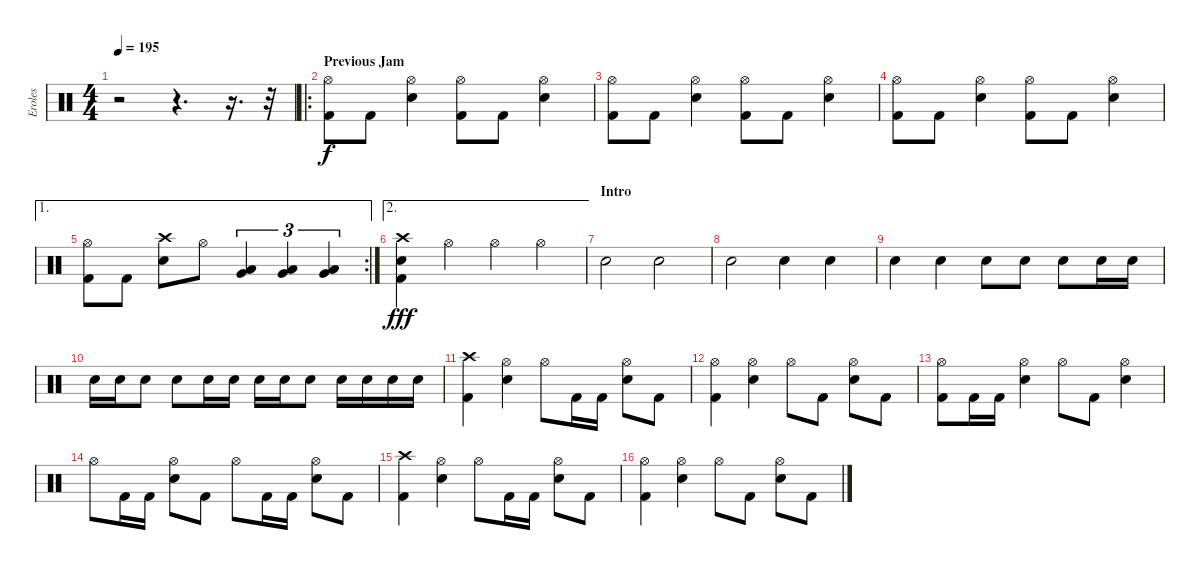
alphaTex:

\track ("Eroles" "Eroles") {instrument percussion}
\staff {score}
\articulation defaults
\ts (4 4)
\tempo 195
\clef neutral
\ks c
r.2{dy f} r.4{d volume 0} r.16{d} r.32{volume 16} |
\ro
\section ("" "Previous Jam")
("Hi-Hat (open)" "Kick (hit) 2").8 "Kick (hit) 2".8 ("Hi-Hat (open)" "Snare (hit) 2").4 ("Hi-Hat (open)" "Kick (hit) 2").8 "Kick (hit) 2".8 ("Hi-Hat (open)" "Snare (hit) 2").4 |
("Hi-Hat (open)" "Kick (hit) 2").8 "Kick (hit) 2".8 ("Hi-Hat (open)" "Snare (hit) 2").4 ("Hi-Hat (open)" "Kick (hit) 2").8 "Kick (hit) 2".8 ("Hi-Hat (open)" "Snare (hit) 2").4 |
("Hi-Hat (open)" "Kick (hit) 2").8 "Kick (hit) 2".8 ("Hi-Hat (open)" "Snare (hit) 2").4 ("Hi-Hat (open)" "Kick (hit) 2").8 "Kick (hit) 2".8 ("Hi-Hat (open)" "Snare (hit) 2").4 |
\ae 1
\rc 2
("Hi-Hat (open)" "Kick (hit) 2").8 "Kick (hit) 2".8 ("Crash high (hit)" "Snare (hit) 2").8 "Hi-Hat (open)".8 ("Very Low Tom (hit)" "Low Tom (hit)").4{tu (3 2)} ("Very Low Tom (hit)" "Low Tom (hit)").4{tu (3 2)} ("Very Low Tom (hit)" "Low Tom (hit)").4{tu (3 2)} |
\ae 2
("Crash high (hit)" "Snare (hit) 2" "Kick (hit) 2").4{bd 120 dy fff} "Hi-Hat (open)".4 "Hi-Hat (open)".4 "Hi-Hat (open)".4 |
\section ("" "Intro")
"Snare (hit) 2".2 "Snare (hit) 2".2 |
"Snare (hit) 2".2 "Snare (hit) 2".4 "Snare (hit) 2".4 |
"Snare (hit) 2".4 "Snare (hit) 2".4 "Snare (hit) 2".8 "Snare (hit) 2".8 "Snare (hit) 2".8 "Snare (hit) 2".16 "Snare (hit) 2".16 |
"Snare (hit) 2".16 "Snare (hit) 2".16 "Snare (hit) 2".8 "Snare (hit) 2".8 "Snare (hit) 2".16 "Snare (hit) 2".16 "Snare (hit) 2".16 "Snare (hit) 2".16 "Snare (hit) 2".8 "Snare (hit) 2".16 "Snare (hit) 2".16 "Snare (hit) 2".16 "Snare (hit) 2".16 |
("Crash high (hit)" "Kick (hit) 2").4 ("Hi-Hat (open)" "Snare (hit) 2").4 "Hi-Hat (open)".8 "Kick (hit) 2".16 "Kick (hit) 2".16 ("Hi-Hat (open)" "Snare (hit) 2").8 "Kick (hit) 2".8 |
("Hi-Hat (open)" "Kick (hit) 2").4 ("Hi-Hat (open)" "Snare (hit) 2").4 "Hi-Hat (open)".8 "Kick (hit) 2".8 ("Hi-Hat (open)" "Snare (hit) 2").8 "Kick (hit) 2".8 |
("Hi-Hat (open)" "Kick (hit) 2").8 "Kick (hit) 2".16 "Kick (hit) 2".16 ("Hi-Hat (open)" "Snare (hit) 2").4 "Hi-Hat (open)".8 "Kick (hit) 2".8 ("Hi-Hat (open)" "Snare (hit) 2").4 |
"Hi-Hat (open)".8 "Kick (hit) 2".16 "Kick (hit) 2".16 ("Hi-Hat (open)" "Snare (hit) 2").8 "Kick (hit) 2".8 "Hi-Hat (open)".8 "Kick (hit) 2".16 "Kick (hit) 2".16 ("Hi-Hat (open)" "Snare (hit) 2").8 "Kick (hit) 2".8 |
("Crash high (hit)" "Kick (hit) 2").4 ("Hi-Hat (open)" "Snare (hit) 2").4 "Hi-Hat (open)".8 "Kick (hit) 2".16 "Kick (hit) 2".16 ("Hi-Hat (open)" "Snare (hit) 2").8 "Kick (hit) 2".8 |
("Hi-Hat (open)" "Kick (hit) 2").4 ("Hi-Hat (open)" "Snare (hit) 2").4 "Hi-Hat (open)".8 "Kick (hit) 2".8 ("Hi-Hat (open)" "Snare (hit) 2").8 "Kick (hit) 2".8
